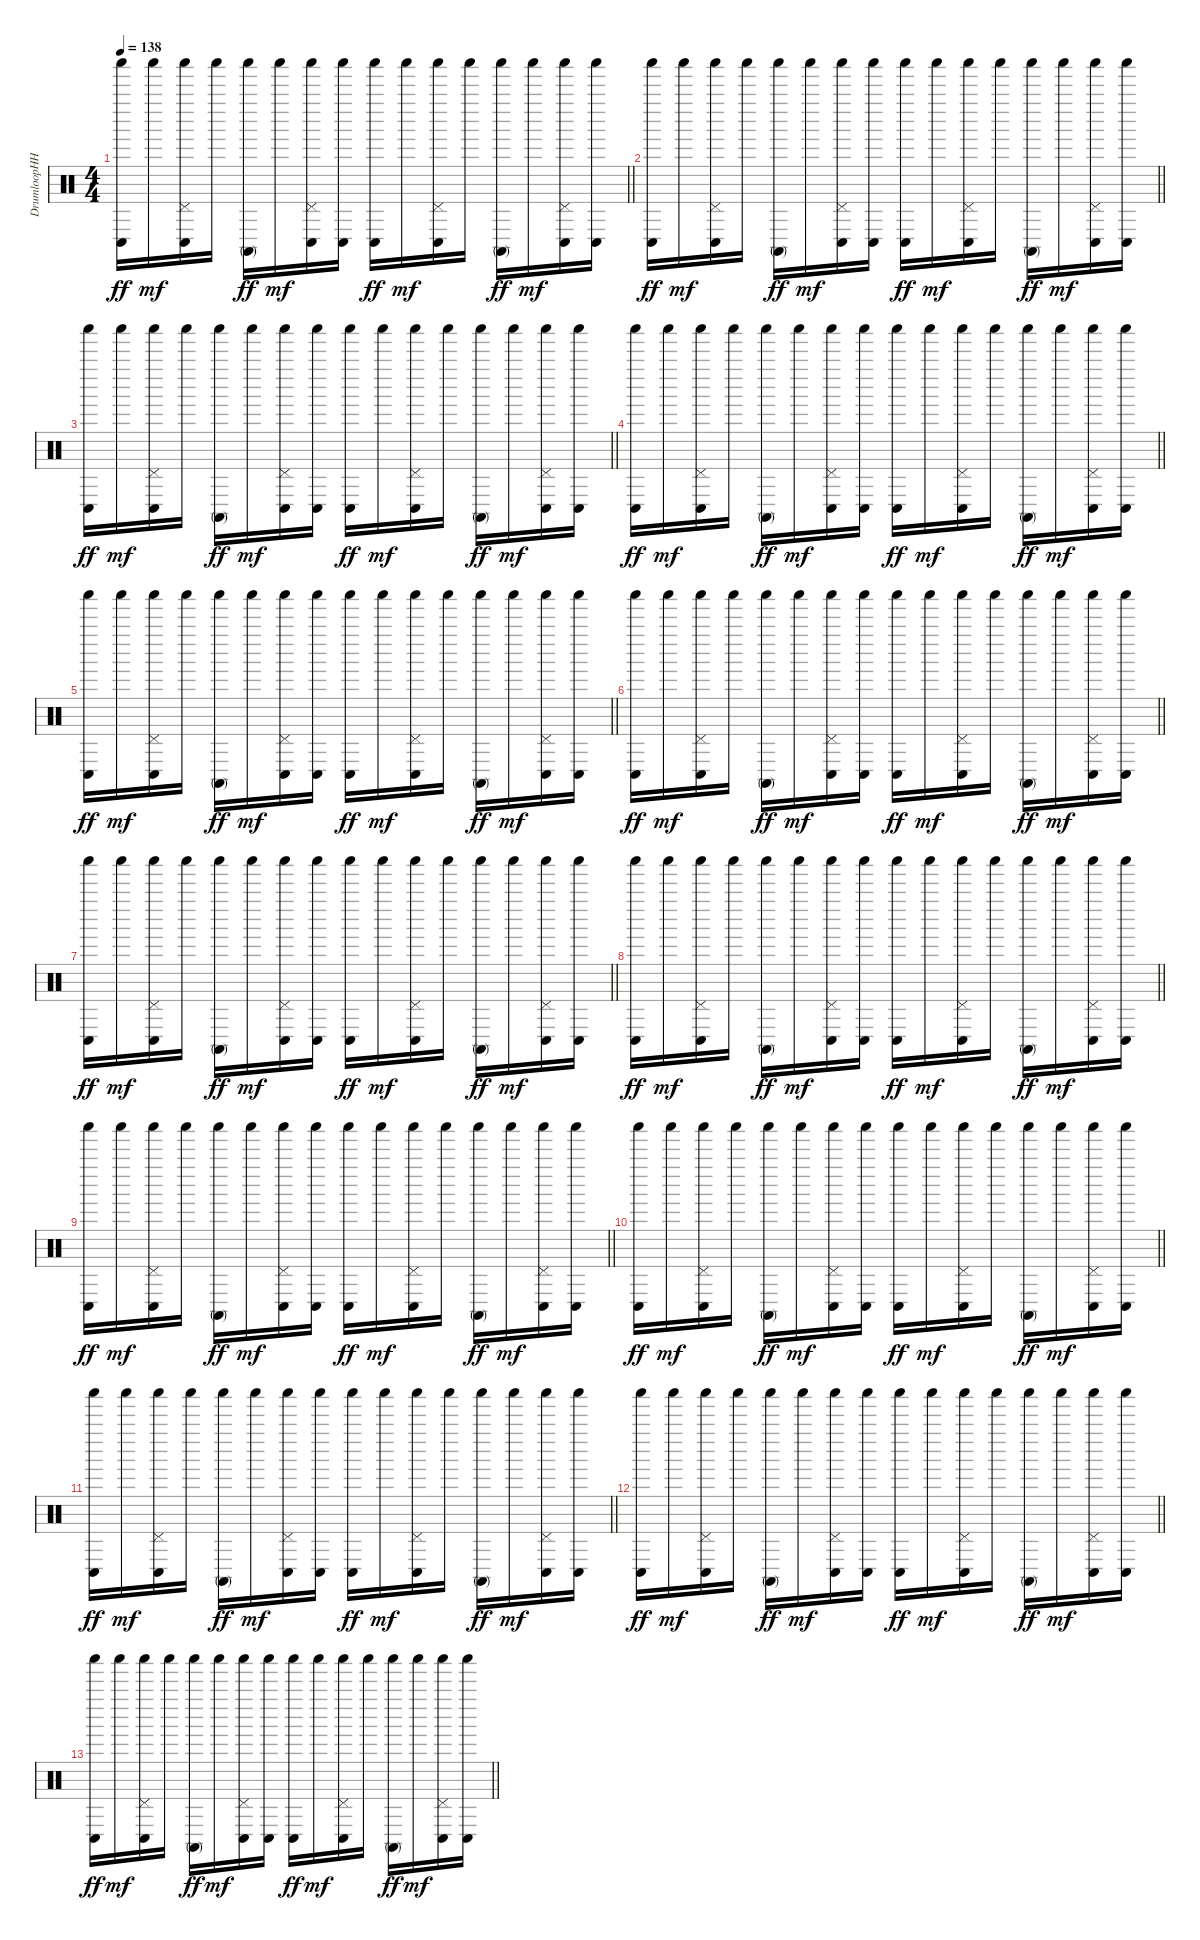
\track ("DrumloopHH" "DrumloopHH") {instrument percussion}
\staff {score}
\articulation defaults
\ts (4 4)
\tempo 138
\clef neutral
\barLineRight lightlight
\ks c
("Conga low (hit)" "Shaker (hit)").16{dy ff} "Shaker (hit)".16{dy mf} ("Conga low (hit)" "Pedal Hi-Hat (hit)" "Shaker (hit)").16 "Shaker (hit)".16 ("Conga high (mute)" "Shaker (hit)").16{dy ff} "Shaker (hit)".16{dy mf} ("Conga low (hit)" "Pedal Hi-Hat (hit)" "Shaker (hit)").16 ("Conga low (hit)" "Shaker (hit)").16 ("Conga low (hit)" "Shaker (hit)").16{dy ff} "Shaker (hit)".16{dy mf} ("Conga low (hit)" "Pedal Hi-Hat (hit)" "Shaker (hit)").16 "Shaker (hit)".16 ("Conga high (mute)" "Shaker (hit)").16{dy ff} "Shaker (hit)".16{dy mf} ("Conga low (hit)" "Pedal Hi-Hat (hit)" "Shaker (hit)").16 ("Conga low (hit)" "Shaker (hit)").16 |
\barLineRight lightlight
("Conga low (hit)" "Shaker (hit)").16{dy ff} "Shaker (hit)".16{dy mf} ("Conga low (hit)" "Pedal Hi-Hat (hit)" "Shaker (hit)").16 "Shaker (hit)".16 ("Conga high (mute)" "Shaker (hit)").16{dy ff} "Shaker (hit)".16{dy mf} ("Conga low (hit)" "Pedal Hi-Hat (hit)" "Shaker (hit)").16 ("Conga low (hit)" "Shaker (hit)").16 ("Conga low (hit)" "Shaker (hit)").16{dy ff} "Shaker (hit)".16{dy mf} ("Conga low (hit)" "Pedal Hi-Hat (hit)" "Shaker (hit)").16 "Shaker (hit)".16 ("Conga high (mute)" "Shaker (hit)").16{dy ff} "Shaker (hit)".16{dy mf} ("Conga low (hit)" "Pedal Hi-Hat (hit)" "Shaker (hit)").16 ("Conga low (hit)" "Shaker (hit)").16 |
\barLineRight lightlight
("Conga low (hit)" "Shaker (hit)").16{dy ff} "Shaker (hit)".16{dy mf} ("Conga low (hit)" "Pedal Hi-Hat (hit)" "Shaker (hit)").16 "Shaker (hit)".16 ("Conga high (mute)" "Shaker (hit)").16{dy ff} "Shaker (hit)".16{dy mf} ("Conga low (hit)" "Pedal Hi-Hat (hit)" "Shaker (hit)").16 ("Conga low (hit)" "Shaker (hit)").16 ("Conga low (hit)" "Shaker (hit)").16{dy ff} "Shaker (hit)".16{dy mf} ("Conga low (hit)" "Pedal Hi-Hat (hit)" "Shaker (hit)").16 "Shaker (hit)".16 ("Conga high (mute)" "Shaker (hit)").16{dy ff} "Shaker (hit)".16{dy mf} ("Conga low (hit)" "Pedal Hi-Hat (hit)" "Shaker (hit)").16 ("Conga low (hit)" "Shaker (hit)").16 |
\barLineRight lightlight
("Conga low (hit)" "Shaker (hit)").16{dy ff} "Shaker (hit)".16{dy mf} ("Conga low (hit)" "Pedal Hi-Hat (hit)" "Shaker (hit)").16 "Shaker (hit)".16 ("Conga high (mute)" "Shaker (hit)").16{dy ff} "Shaker (hit)".16{dy mf} ("Conga low (hit)" "Pedal Hi-Hat (hit)" "Shaker (hit)").16 ("Conga low (hit)" "Shaker (hit)").16 ("Conga low (hit)" "Shaker (hit)").16{dy ff} "Shaker (hit)".16{dy mf} ("Conga low (hit)" "Pedal Hi-Hat (hit)" "Shaker (hit)").16 "Shaker (hit)".16 ("Conga high (mute)" "Shaker (hit)").16{dy ff} "Shaker (hit)".16{dy mf} ("Conga low (hit)" "Pedal Hi-Hat (hit)" "Shaker (hit)").16 ("Conga low (hit)" "Shaker (hit)").16 |
\barLineRight lightlight
("Conga low (hit)" "Shaker (hit)").16{dy ff} "Shaker (hit)".16{dy mf} ("Conga low (hit)" "Pedal Hi-Hat (hit)" "Shaker (hit)").16 "Shaker (hit)".16 ("Conga high (mute)" "Shaker (hit)").16{dy ff} "Shaker (hit)".16{dy mf} ("Conga low (hit)" "Pedal Hi-Hat (hit)" "Shaker (hit)").16 ("Conga low (hit)" "Shaker (hit)").16 ("Conga low (hit)" "Shaker (hit)").16{dy ff} "Shaker (hit)".16{dy mf} ("Conga low (hit)" "Pedal Hi-Hat (hit)" "Shaker (hit)").16 "Shaker (hit)".16 ("Conga high (mute)" "Shaker (hit)").16{dy ff} "Shaker (hit)".16{dy mf} ("Conga low (hit)" "Pedal Hi-Hat (hit)" "Shaker (hit)").16 ("Conga low (hit)" "Shaker (hit)").16 |
\barLineRight lightlight
("Conga low (hit)" "Shaker (hit)").16{dy ff} "Shaker (hit)".16{dy mf} ("Conga low (hit)" "Pedal Hi-Hat (hit)" "Shaker (hit)").16 "Shaker (hit)".16 ("Conga high (mute)" "Shaker (hit)").16{dy ff} "Shaker (hit)".16{dy mf} ("Conga low (hit)" "Pedal Hi-Hat (hit)" "Shaker (hit)").16 ("Conga low (hit)" "Shaker (hit)").16 ("Conga low (hit)" "Shaker (hit)").16{dy ff} "Shaker (hit)".16{dy mf} ("Conga low (hit)" "Pedal Hi-Hat (hit)" "Shaker (hit)").16 "Shaker (hit)".16 ("Conga high (mute)" "Shaker (hit)").16{dy ff} "Shaker (hit)".16{dy mf} ("Conga low (hit)" "Pedal Hi-Hat (hit)" "Shaker (hit)").16 ("Conga low (hit)" "Shaker (hit)").16 |
\barLineRight lightlight
("Conga low (hit)" "Shaker (hit)").16{dy ff} "Shaker (hit)".16{dy mf} ("Conga low (hit)" "Pedal Hi-Hat (hit)" "Shaker (hit)").16 "Shaker (hit)".16 ("Conga high (mute)" "Shaker (hit)").16{dy ff} "Shaker (hit)".16{dy mf} ("Conga low (hit)" "Pedal Hi-Hat (hit)" "Shaker (hit)").16 ("Conga low (hit)" "Shaker (hit)").16 ("Conga low (hit)" "Shaker (hit)").16{dy ff} "Shaker (hit)".16{dy mf} ("Conga low (hit)" "Pedal Hi-Hat (hit)" "Shaker (hit)").16 "Shaker (hit)".16 ("Conga high (mute)" "Shaker (hit)").16{dy ff} "Shaker (hit)".16{dy mf} ("Conga low (hit)" "Pedal Hi-Hat (hit)" "Shaker (hit)").16 ("Conga low (hit)" "Shaker (hit)").16 |
\barLineRight lightlight
("Conga low (hit)" "Shaker (hit)").16{dy ff} "Shaker (hit)".16{dy mf} ("Conga low (hit)" "Pedal Hi-Hat (hit)" "Shaker (hit)").16 "Shaker (hit)".16 ("Conga high (mute)" "Shaker (hit)").16{dy ff} "Shaker (hit)".16{dy mf} ("Conga low (hit)" "Pedal Hi-Hat (hit)" "Shaker (hit)").16 ("Conga low (hit)" "Shaker (hit)").16 ("Conga low (hit)" "Shaker (hit)").16{dy ff} "Shaker (hit)".16{dy mf} ("Conga low (hit)" "Pedal Hi-Hat (hit)" "Shaker (hit)").16 "Shaker (hit)".16 ("Conga high (mute)" "Shaker (hit)").16{dy ff} "Shaker (hit)".16{dy mf} ("Conga low (hit)" "Pedal Hi-Hat (hit)" "Shaker (hit)").16 ("Conga low (hit)" "Shaker (hit)").16 |
\barLineRight lightlight
("Conga low (hit)" "Shaker (hit)").16{dy ff} "Shaker (hit)".16{dy mf} ("Conga low (hit)" "Pedal Hi-Hat (hit)" "Shaker (hit)").16 "Shaker (hit)".16 ("Conga high (mute)" "Shaker (hit)").16{dy ff} "Shaker (hit)".16{dy mf} ("Conga low (hit)" "Pedal Hi-Hat (hit)" "Shaker (hit)").16 ("Conga low (hit)" "Shaker (hit)").16 ("Conga low (hit)" "Shaker (hit)").16{dy ff} "Shaker (hit)".16{dy mf} ("Conga low (hit)" "Pedal Hi-Hat (hit)" "Shaker (hit)").16 "Shaker (hit)".16 ("Conga high (mute)" "Shaker (hit)").16{dy ff} "Shaker (hit)".16{dy mf} ("Conga low (hit)" "Pedal Hi-Hat (hit)" "Shaker (hit)").16 ("Conga low (hit)" "Shaker (hit)").16 |
\barLineRight lightlight
("Conga low (hit)" "Shaker (hit)").16{dy ff} "Shaker (hit)".16{dy mf} ("Conga low (hit)" "Pedal Hi-Hat (hit)" "Shaker (hit)").16 "Shaker (hit)".16 ("Conga high (mute)" "Shaker (hit)").16{dy ff} "Shaker (hit)".16{dy mf} ("Conga low (hit)" "Pedal Hi-Hat (hit)" "Shaker (hit)").16 ("Conga low (hit)" "Shaker (hit)").16 ("Conga low (hit)" "Shaker (hit)").16{dy ff} "Shaker (hit)".16{dy mf} ("Conga low (hit)" "Pedal Hi-Hat (hit)" "Shaker (hit)").16 "Shaker (hit)".16 ("Conga high (mute)" "Shaker (hit)").16{dy ff} "Shaker (hit)".16{dy mf} ("Conga low (hit)" "Pedal Hi-Hat (hit)" "Shaker (hit)").16 ("Conga low (hit)" "Shaker (hit)").16 |
\barLineRight lightlight
("Conga low (hit)" "Shaker (hit)").16{dy ff} "Shaker (hit)".16{dy mf} ("Conga low (hit)" "Pedal Hi-Hat (hit)" "Shaker (hit)").16 "Shaker (hit)".16 ("Conga high (mute)" "Shaker (hit)").16{dy ff} "Shaker (hit)".16{dy mf} ("Conga low (hit)" "Pedal Hi-Hat (hit)" "Shaker (hit)").16 ("Conga low (hit)" "Shaker (hit)").16 ("Conga low (hit)" "Shaker (hit)").16{dy ff} "Shaker (hit)".16{dy mf} ("Conga low (hit)" "Pedal Hi-Hat (hit)" "Shaker (hit)").16 "Shaker (hit)".16 ("Conga high (mute)" "Shaker (hit)").16{dy ff} "Shaker (hit)".16{dy mf} ("Conga low (hit)" "Pedal Hi-Hat (hit)" "Shaker (hit)").16 ("Conga low (hit)" "Shaker (hit)").16 |
\barLineRight lightlight
("Conga low (hit)" "Shaker (hit)").16{dy ff} "Shaker (hit)".16{dy mf} ("Conga low (hit)" "Pedal Hi-Hat (hit)" "Shaker (hit)").16 "Shaker (hit)".16 ("Conga high (mute)" "Shaker (hit)").16{dy ff} "Shaker (hit)".16{dy mf} ("Conga low (hit)" "Pedal Hi-Hat (hit)" "Shaker (hit)").16 ("Conga low (hit)" "Shaker (hit)").16 ("Conga low (hit)" "Shaker (hit)").16{dy ff} "Shaker (hit)".16{dy mf} ("Conga low (hit)" "Pedal Hi-Hat (hit)" "Shaker (hit)").16 "Shaker (hit)".16 ("Conga high (mute)" "Shaker (hit)").16{dy ff} "Shaker (hit)".16{dy mf} ("Conga low (hit)" "Pedal Hi-Hat (hit)" "Shaker (hit)").16 ("Conga low (hit)" "Shaker (hit)").16 |
\barLineRight lightlight
("Conga low (hit)" "Shaker (hit)").16{dy ff} "Shaker (hit)".16{dy mf} ("Conga low (hit)" "Pedal Hi-Hat (hit)" "Shaker (hit)").16 "Shaker (hit)".16 ("Conga high (mute)" "Shaker (hit)").16{dy ff} "Shaker (hit)".16{dy mf} ("Conga low (hit)" "Pedal Hi-Hat (hit)" "Shaker (hit)").16 ("Conga low (hit)" "Shaker (hit)").16 ("Conga low (hit)" "Shaker (hit)").16{dy ff} "Shaker (hit)".16{dy mf} ("Conga low (hit)" "Pedal Hi-Hat (hit)" "Shaker (hit)").16 "Shaker (hit)".16 ("Conga high (mute)" "Shaker (hit)").16{dy ff} "Shaker (hit)".16{dy mf} ("Conga low (hit)" "Pedal Hi-Hat (hit)" "Shaker (hit)").16 ("Conga low (hit)" "Shaker (hit)").16
